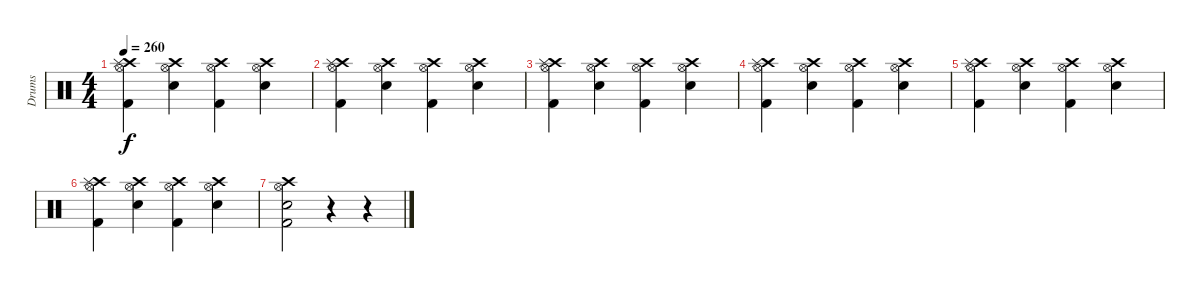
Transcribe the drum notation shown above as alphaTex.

\track ("Drums" "Drums") {instrument percussion}
\staff {score}
\articulation defaults
\ts (4 4)
\tempo 260
\clef neutral
\ks c
("Crash high (hit)" "Kick (hit) 2" "Hi-Hat (open)" "Splash (hit)").4{dy f} ("Crash high (hit)" "Electric Snare (hit)" "Hi-Hat (open)").4 ("Crash high (hit)" "Kick (hit) 2" "Hi-Hat (open)").4 ("Crash high (hit)" "Electric Snare (hit)" "Hi-Hat (open)").4 |
("Crash high (hit)" "Kick (hit) 2" "Hi-Hat (open)" "Splash (hit)").4 ("Crash high (hit)" "Electric Snare (hit)" "Hi-Hat (open)").4 ("Crash high (hit)" "Kick (hit) 2" "Hi-Hat (open)").4 ("Crash high (hit)" "Electric Snare (hit)" "Hi-Hat (open)").4 |
("Crash high (hit)" "Kick (hit) 2" "Hi-Hat (open)" "Splash (hit)").4 ("Crash high (hit)" "Electric Snare (hit)" "Hi-Hat (open)").4 ("Crash high (hit)" "Kick (hit) 2" "Hi-Hat (open)").4 ("Crash high (hit)" "Electric Snare (hit)" "Hi-Hat (open)").4 |
("Crash high (hit)" "Kick (hit) 2" "Hi-Hat (open)" "Splash (hit)").4 ("Crash high (hit)" "Electric Snare (hit)" "Hi-Hat (open)").4 ("Crash high (hit)" "Kick (hit) 2" "Hi-Hat (open)").4 ("Crash high (hit)" "Electric Snare (hit)" "Hi-Hat (open)").4 |
("Crash high (hit)" "Kick (hit) 2" "Hi-Hat (open)" "Splash (hit)").4 ("Crash high (hit)" "Electric Snare (hit)" "Hi-Hat (open)").4 ("Crash high (hit)" "Kick (hit) 2" "Hi-Hat (open)").4 ("Crash high (hit)" "Electric Snare (hit)" "Hi-Hat (open)").4 |
("Crash high (hit)" "Kick (hit) 2" "Hi-Hat (open)" "Splash (hit)").4 ("Crash high (hit)" "Electric Snare (hit)" "Hi-Hat (open)").4 ("Crash high (hit)" "Kick (hit) 2" "Hi-Hat (open)").4 ("Crash high (hit)" "Electric Snare (hit)" "Hi-Hat (open)").4 |
("Crash high (hit)" "Kick (hit) 2" "Electric Snare (hit)" "Hi-Hat (open)").2 r.4 r.4
